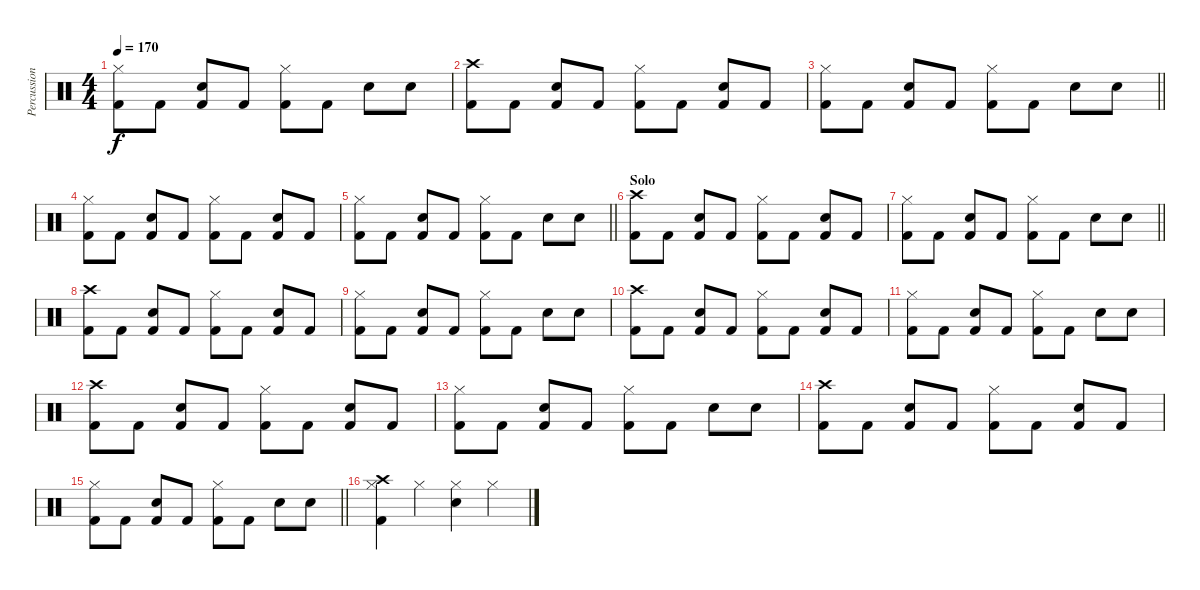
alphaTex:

\track ("Percussion" "Percussion") {instrument percussion}
\staff {score}
\articulation defaults
\ts (4 4)
\tempo 170
\clef neutral
\ks c
("Kick (hit) 2" "Hi-Hat (closed)").8{dy f} "Kick (hit) 2".8 ("Kick (hit) 2" "Electric Snare (hit)").8 "Kick (hit) 2".8 ("Kick (hit) 2" "Hi-Hat (closed)").8 "Kick (hit) 2".8 "Electric Snare (hit)".8 "Electric Snare (hit)".8 |
("Kick (hit) 2" "Crash high (hit)").8 "Kick (hit) 2".8 ("Kick (hit) 2" "Electric Snare (hit)").8 "Kick (hit) 2".8 ("Kick (hit) 2" "Hi-Hat (closed)").8 "Kick (hit) 2".8 ("Kick (hit) 2" "Electric Snare (hit)").8 "Kick (hit) 2".8 |
\barLineRight lightlight
("Kick (hit) 2" "Hi-Hat (closed)").8 "Kick (hit) 2".8 ("Kick (hit) 2" "Electric Snare (hit)").8 "Kick (hit) 2".8 ("Kick (hit) 2" "Hi-Hat (closed)").8 "Kick (hit) 2".8 "Electric Snare (hit)".8 "Electric Snare (hit)".8 |
("Kick (hit) 2" "Hi-Hat (closed)").8 "Kick (hit) 2".8 ("Kick (hit) 2" "Electric Snare (hit)").8 "Kick (hit) 2".8 ("Kick (hit) 2" "Hi-Hat (closed)").8 "Kick (hit) 2".8 ("Kick (hit) 2" "Electric Snare (hit)").8 "Kick (hit) 2".8 |
\barLineRight lightlight
("Kick (hit) 2" "Hi-Hat (closed)").8 "Kick (hit) 2".8 ("Kick (hit) 2" "Electric Snare (hit)").8 "Kick (hit) 2".8 ("Kick (hit) 2" "Hi-Hat (closed)").8 "Kick (hit) 2".8 "Electric Snare (hit)".8 "Electric Snare (hit)".8 |
\section ("" "Solo")
("Kick (hit) 2" "Crash high (hit)").8 "Kick (hit) 2".8 ("Kick (hit) 2" "Electric Snare (hit)").8 "Kick (hit) 2".8 ("Kick (hit) 2" "Hi-Hat (closed)").8 "Kick (hit) 2".8 ("Kick (hit) 2" "Electric Snare (hit)").8 "Kick (hit) 2".8 |
\barLineRight lightlight
("Kick (hit) 2" "Hi-Hat (closed)").8 "Kick (hit) 2".8 ("Kick (hit) 2" "Electric Snare (hit)").8 "Kick (hit) 2".8 ("Kick (hit) 2" "Hi-Hat (closed)").8 "Kick (hit) 2".8 "Electric Snare (hit)".8 "Electric Snare (hit)".8 |
("Kick (hit) 2" "Crash high (hit)").8 "Kick (hit) 2".8 ("Kick (hit) 2" "Electric Snare (hit)").8 "Kick (hit) 2".8 ("Kick (hit) 2" "Hi-Hat (closed)").8 "Kick (hit) 2".8 ("Kick (hit) 2" "Electric Snare (hit)").8 "Kick (hit) 2".8 |
("Kick (hit) 2" "Hi-Hat (closed)").8 "Kick (hit) 2".8 ("Kick (hit) 2" "Electric Snare (hit)").8 "Kick (hit) 2".8 ("Kick (hit) 2" "Hi-Hat (closed)").8 "Kick (hit) 2".8 "Electric Snare (hit)".8 "Electric Snare (hit)".8 |
("Kick (hit) 2" "Crash high (hit)").8 "Kick (hit) 2".8 ("Kick (hit) 2" "Electric Snare (hit)").8 "Kick (hit) 2".8 ("Kick (hit) 2" "Hi-Hat (closed)").8 "Kick (hit) 2".8 ("Kick (hit) 2" "Electric Snare (hit)").8 "Kick (hit) 2".8 |
("Kick (hit) 2" "Hi-Hat (closed)").8 "Kick (hit) 2".8 ("Kick (hit) 2" "Electric Snare (hit)").8 "Kick (hit) 2".8 ("Kick (hit) 2" "Hi-Hat (closed)").8 "Kick (hit) 2".8 "Electric Snare (hit)".8 "Electric Snare (hit)".8 |
("Kick (hit) 2" "Crash high (hit)").8 "Kick (hit) 2".8 ("Kick (hit) 2" "Electric Snare (hit)").8 "Kick (hit) 2".8 ("Kick (hit) 2" "Hi-Hat (closed)").8 "Kick (hit) 2".8 ("Kick (hit) 2" "Electric Snare (hit)").8 "Kick (hit) 2".8 |
("Kick (hit) 2" "Hi-Hat (closed)").8 "Kick (hit) 2".8 ("Kick (hit) 2" "Electric Snare (hit)").8 "Kick (hit) 2".8 ("Kick (hit) 2" "Hi-Hat (closed)").8 "Kick (hit) 2".8 "Electric Snare (hit)".8 "Electric Snare (hit)".8 |
("Kick (hit) 2" "Crash high (hit)").8 "Kick (hit) 2".8 ("Kick (hit) 2" "Electric Snare (hit)").8 "Kick (hit) 2".8 ("Kick (hit) 2" "Hi-Hat (closed)").8 "Kick (hit) 2".8 ("Kick (hit) 2" "Electric Snare (hit)").8 "Kick (hit) 2".8 |
\barLineRight lightlight
("Kick (hit) 2" "Hi-Hat (closed)").8 "Kick (hit) 2".8 ("Kick (hit) 2" "Electric Snare (hit)").8 "Kick (hit) 2".8 ("Kick (hit) 2" "Hi-Hat (closed)").8 "Kick (hit) 2".8 "Electric Snare (hit)".8 "Electric Snare (hit)".8 |
("Hi-Hat (closed)" "Kick (hit) 2" "Crash high (hit)").4 "Hi-Hat (closed)".4 ("Hi-Hat (closed)" "Electric Snare (hit)").4 "Hi-Hat (closed)".4
